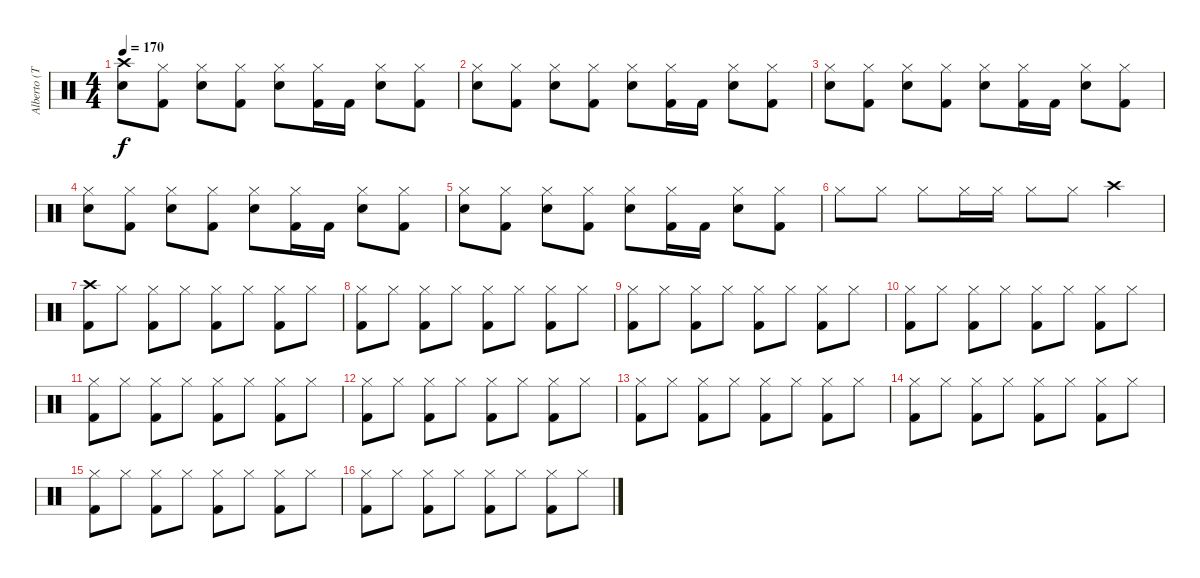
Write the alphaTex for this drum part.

\track ("Alberto (Toshi)" "Alberto (T") {instrument percussion}
\staff {score}
\articulation defaults
\ts (4 4)
\tempo 170
\clef neutral
\ks c
("Crash high (hit)" "Snare (hit) 2").8{dy f} ("Hi-Hat (closed)" "Kick (hit) 2").8 ("Hi-Hat (closed)" "Snare (hit) 2").8 ("Hi-Hat (closed)" "Kick (hit) 2").8 ("Hi-Hat (closed)" "Snare (hit) 2").8 ("Hi-Hat (closed)" "Kick (hit) 2").16 "Kick (hit) 2".16 ("Hi-Hat (closed)" "Snare (hit) 2").8 ("Hi-Hat (closed)" "Kick (hit) 2").8 |
("Hi-Hat (closed)" "Snare (hit) 2").8 ("Hi-Hat (closed)" "Kick (hit) 2").8 ("Hi-Hat (closed)" "Snare (hit) 2").8 ("Hi-Hat (closed)" "Kick (hit) 2").8 ("Hi-Hat (closed)" "Snare (hit) 2").8 ("Hi-Hat (closed)" "Kick (hit) 2").16 "Kick (hit) 2".16 ("Hi-Hat (closed)" "Snare (hit) 2").8 ("Hi-Hat (closed)" "Kick (hit) 2").8 |
("Hi-Hat (closed)" "Snare (hit) 2").8 ("Hi-Hat (closed)" "Kick (hit) 2").8 ("Hi-Hat (closed)" "Snare (hit) 2").8 ("Hi-Hat (closed)" "Kick (hit) 2").8 ("Hi-Hat (closed)" "Snare (hit) 2").8 ("Hi-Hat (closed)" "Kick (hit) 2").16 "Kick (hit) 2".16 ("Hi-Hat (closed)" "Snare (hit) 2").8 ("Hi-Hat (closed)" "Kick (hit) 2").8 |
("Hi-Hat (closed)" "Snare (hit) 2").8 ("Hi-Hat (closed)" "Kick (hit) 2").8 ("Hi-Hat (closed)" "Snare (hit) 2").8 ("Hi-Hat (closed)" "Kick (hit) 2").8 ("Hi-Hat (closed)" "Snare (hit) 2").8 ("Hi-Hat (closed)" "Kick (hit) 2").16 "Kick (hit) 2".16 ("Hi-Hat (closed)" "Snare (hit) 2").8 ("Hi-Hat (closed)" "Kick (hit) 2").8 |
("Hi-Hat (closed)" "Snare (hit) 2").8 ("Hi-Hat (closed)" "Kick (hit) 2").8 ("Hi-Hat (closed)" "Snare (hit) 2").8 ("Hi-Hat (closed)" "Kick (hit) 2").8 ("Hi-Hat (closed)" "Snare (hit) 2").8 ("Hi-Hat (closed)" "Kick (hit) 2").16 "Kick (hit) 2".16 ("Hi-Hat (closed)" "Snare (hit) 2").8 ("Hi-Hat (closed)" "Kick (hit) 2").8 |
"Hi-Hat (closed)".8 "Hi-Hat (closed)".8 "Hi-Hat (closed)".8 "Hi-Hat (closed)".16 "Hi-Hat (closed)".16 "Hi-Hat (closed)".8 "Hi-Hat (closed)".8 "Crash high (hit)".4 |
("Crash high (hit)" "Kick (hit) 2").8 "Hi-Hat (closed)".8 ("Hi-Hat (closed)" "Kick (hit) 2").8 "Hi-Hat (closed)".8 ("Hi-Hat (closed)" "Kick (hit) 2").8 "Hi-Hat (closed)".8 ("Hi-Hat (closed)" "Kick (hit) 2").8 "Hi-Hat (closed)".8 |
("Hi-Hat (closed)" "Kick (hit) 2").8 "Hi-Hat (closed)".8 ("Hi-Hat (closed)" "Kick (hit) 2").8 "Hi-Hat (closed)".8 ("Hi-Hat (closed)" "Kick (hit) 2").8 "Hi-Hat (closed)".8 ("Hi-Hat (closed)" "Kick (hit) 2").8 "Hi-Hat (closed)".8 |
("Hi-Hat (closed)" "Kick (hit) 2").8 "Hi-Hat (closed)".8 ("Hi-Hat (closed)" "Kick (hit) 2").8 "Hi-Hat (closed)".8 ("Hi-Hat (closed)" "Kick (hit) 2").8 "Hi-Hat (closed)".8 ("Hi-Hat (closed)" "Kick (hit) 2").8 "Hi-Hat (closed)".8 |
("Hi-Hat (closed)" "Kick (hit) 2").8 "Hi-Hat (closed)".8 ("Hi-Hat (closed)" "Kick (hit) 2").8 "Hi-Hat (closed)".8 ("Hi-Hat (closed)" "Kick (hit) 2").8 "Hi-Hat (closed)".8 ("Hi-Hat (closed)" "Kick (hit) 2").8 "Hi-Hat (closed)".8 |
("Hi-Hat (closed)" "Kick (hit) 2").8 "Hi-Hat (closed)".8 ("Hi-Hat (closed)" "Kick (hit) 2").8 "Hi-Hat (closed)".8 ("Hi-Hat (closed)" "Kick (hit) 2").8 "Hi-Hat (closed)".8 ("Hi-Hat (closed)" "Kick (hit) 2").8 "Hi-Hat (closed)".8 |
("Hi-Hat (closed)" "Kick (hit) 2").8 "Hi-Hat (closed)".8 ("Hi-Hat (closed)" "Kick (hit) 2").8 "Hi-Hat (closed)".8 ("Hi-Hat (closed)" "Kick (hit) 2").8 "Hi-Hat (closed)".8 ("Hi-Hat (closed)" "Kick (hit) 2").8 "Hi-Hat (closed)".8 |
("Hi-Hat (closed)" "Kick (hit) 2").8 "Hi-Hat (closed)".8 ("Hi-Hat (closed)" "Kick (hit) 2").8 "Hi-Hat (closed)".8 ("Hi-Hat (closed)" "Kick (hit) 2").8 "Hi-Hat (closed)".8 ("Hi-Hat (closed)" "Kick (hit) 2").8 "Hi-Hat (closed)".8 |
("Hi-Hat (closed)" "Kick (hit) 2").8 "Hi-Hat (closed)".8 ("Hi-Hat (closed)" "Kick (hit) 2").8 "Hi-Hat (closed)".8 ("Hi-Hat (closed)" "Kick (hit) 2").8 "Hi-Hat (closed)".8 ("Hi-Hat (closed)" "Kick (hit) 2").8 "Hi-Hat (closed)".8 |
("Hi-Hat (closed)" "Kick (hit) 2").8 "Hi-Hat (closed)".8 ("Hi-Hat (closed)" "Kick (hit) 2").8 "Hi-Hat (closed)".8 ("Hi-Hat (closed)" "Kick (hit) 2").8 "Hi-Hat (closed)".8 ("Hi-Hat (closed)" "Kick (hit) 2").8 "Hi-Hat (closed)".8 |
("Hi-Hat (closed)" "Kick (hit) 2").8 "Hi-Hat (closed)".8 ("Hi-Hat (closed)" "Kick (hit) 2").8 "Hi-Hat (closed)".8 ("Hi-Hat (closed)" "Kick (hit) 2").8 "Hi-Hat (closed)".8 ("Hi-Hat (closed)" "Kick (hit) 2").8 "Hi-Hat (closed)".8
